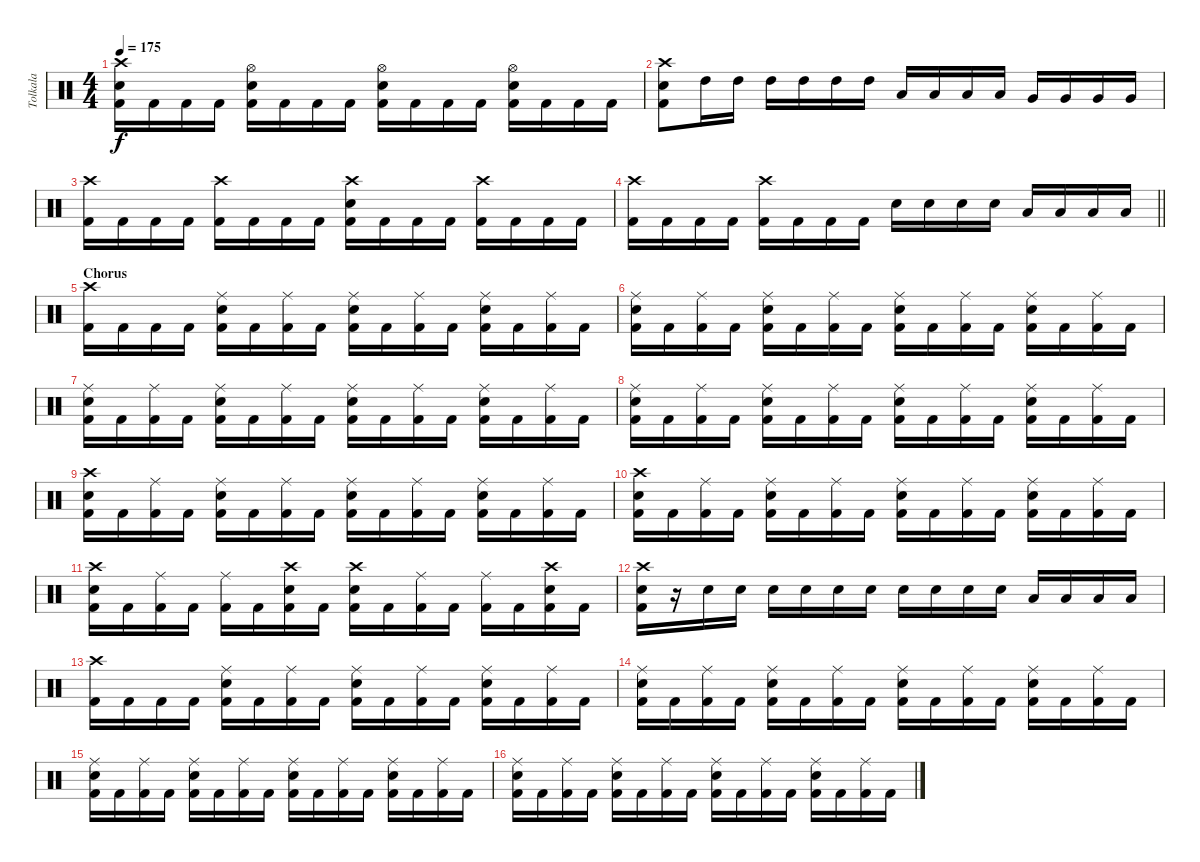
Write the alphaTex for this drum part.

\track ("Tolkala" "Tolkala") {instrument percussion}
\staff {score}
\articulation defaults
\ts (4 4)
\tempo 175
\clef neutral
\ks c
("Crash high (hit)" "Electric Snare (hit)" "Kick (hit) 2").16{dy f} "Kick (hit) 2".16 "Kick (hit) 2".16 "Kick (hit) 2".16 ("Hi-Hat (open)" "Electric Snare (hit)" "Kick (hit) 2").16 "Kick (hit) 2".16 "Kick (hit) 2".16 "Kick (hit) 2".16 ("Hi-Hat (open)" "Electric Snare (hit)" "Kick (hit) 2").16 "Kick (hit) 2".16 "Kick (hit) 2".16 "Kick (hit) 2".16 ("Hi-Hat (open)" "Electric Snare (hit)" "Kick (hit) 2").16 "Kick (hit) 2".16 "Kick (hit) 2".16 "Kick (hit) 2".16 |
("Crash high (hit)" "Electric Snare (hit)" "Kick (hit) 2").8 "High Tom (hit)".16 "High Tom (hit)".16 "High Tom (hit)".16 "High Tom (hit)".16 "High Tom (hit)".16 "High Tom (hit)".16 "Low Tom (hit)".16 "Low Tom (hit)".16 "Low Tom (hit)".16 "Low Tom (hit)".16 "Very Low Tom (hit)".16 "Very Low Tom (hit)".16 "Very Low Tom (hit)".16 "Very Low Tom (hit)".16 |
("Crash high (hit)" "Kick (hit) 2").16 "Kick (hit) 2".16 "Kick (hit) 2".16 "Kick (hit) 2".16 ("Crash high (hit)" "Kick (hit) 2").16 "Kick (hit) 2".16 "Kick (hit) 2".16 "Kick (hit) 2".16 ("Crash high (hit)" "Electric Snare (hit)" "Kick (hit) 2").16 "Kick (hit) 2".16 "Kick (hit) 2".16 "Kick (hit) 2".16 ("Crash high (hit)" "Kick (hit) 2").16 "Kick (hit) 2".16 "Kick (hit) 2".16 "Kick (hit) 2".16 |
\barLineRight lightlight
("Crash high (hit)" "Kick (hit) 2").16 "Kick (hit) 2".16 "Kick (hit) 2".16 "Kick (hit) 2".16 ("Crash high (hit)" "Kick (hit) 2").16 "Kick (hit) 2".16 "Kick (hit) 2".16 "Kick (hit) 2".16 "Electric Snare (hit)".16 "Electric Snare (hit)".16 "Electric Snare (hit)".16 "Electric Snare (hit)".16 "Low Tom (hit)".16 "Low Tom (hit)".16 "Low Tom (hit)".16 "Low Tom (hit)".16 |
\section ("" "Chorus")
("Crash high (hit)" "Kick (hit) 2").16 "Kick (hit) 2".16 "Kick (hit) 2".16 "Kick (hit) 2".16 ("Ride (middle)" "Electric Snare (hit)" "Kick (hit) 2").16 "Kick (hit) 2".16 ("Ride (middle)" "Kick (hit) 2").16 "Kick (hit) 2".16 ("Ride (middle)" "Electric Snare (hit)" "Kick (hit) 2").16 "Kick (hit) 2".16 ("Ride (middle)" "Kick (hit) 2").16 "Kick (hit) 2".16 ("Ride (middle)" "Electric Snare (hit)" "Kick (hit) 2").16 "Kick (hit) 2".16 ("Ride (middle)" "Kick (hit) 2").16 "Kick (hit) 2".16 |
("Ride (middle)" "Electric Snare (hit)" "Kick (hit) 2").16 "Kick (hit) 2".16 ("Ride (middle)" "Kick (hit) 2").16 "Kick (hit) 2".16 ("Ride (middle)" "Electric Snare (hit)" "Kick (hit) 2").16 "Kick (hit) 2".16 ("Ride (middle)" "Kick (hit) 2").16 "Kick (hit) 2".16 ("Ride (middle)" "Electric Snare (hit)" "Kick (hit) 2").16 "Kick (hit) 2".16 ("Ride (middle)" "Kick (hit) 2").16 "Kick (hit) 2".16 ("Ride (middle)" "Electric Snare (hit)" "Kick (hit) 2").16 "Kick (hit) 2".16 ("Ride (middle)" "Kick (hit) 2").16 "Kick (hit) 2".16 |
("Ride (middle)" "Electric Snare (hit)" "Kick (hit) 2").16 "Kick (hit) 2".16 ("Ride (middle)" "Kick (hit) 2").16 "Kick (hit) 2".16 ("Ride (middle)" "Electric Snare (hit)" "Kick (hit) 2").16 "Kick (hit) 2".16 ("Ride (middle)" "Kick (hit) 2").16 "Kick (hit) 2".16 ("Ride (middle)" "Electric Snare (hit)" "Kick (hit) 2").16 "Kick (hit) 2".16 ("Ride (middle)" "Kick (hit) 2").16 "Kick (hit) 2".16 ("Ride (middle)" "Electric Snare (hit)" "Kick (hit) 2").16 "Kick (hit) 2".16 ("Ride (middle)" "Kick (hit) 2").16 "Kick (hit) 2".16 |
("Ride (middle)" "Electric Snare (hit)" "Kick (hit) 2").16 "Kick (hit) 2".16 ("Ride (middle)" "Kick (hit) 2").16 "Kick (hit) 2".16 ("Ride (middle)" "Electric Snare (hit)" "Kick (hit) 2").16 "Kick (hit) 2".16 ("Ride (middle)" "Kick (hit) 2").16 "Kick (hit) 2".16 ("Ride (middle)" "Electric Snare (hit)" "Kick (hit) 2").16 "Kick (hit) 2".16 ("Ride (middle)" "Kick (hit) 2").16 "Kick (hit) 2".16 ("Ride (middle)" "Electric Snare (hit)" "Kick (hit) 2").16 "Kick (hit) 2".16 ("Ride (middle)" "Kick (hit) 2").16 "Kick (hit) 2".16 |
("Crash high (hit)" "Electric Snare (hit)" "Kick (hit) 2").16 "Kick (hit) 2".16 ("Ride (middle)" "Kick (hit) 2").16 "Kick (hit) 2".16 ("Ride (middle)" "Electric Snare (hit)" "Kick (hit) 2").16 "Kick (hit) 2".16 ("Ride (middle)" "Kick (hit) 2").16 "Kick (hit) 2".16 ("Ride (middle)" "Electric Snare (hit)" "Kick (hit) 2").16 "Kick (hit) 2".16 ("Ride (middle)" "Kick (hit) 2").16 "Kick (hit) 2".16 ("Ride (middle)" "Electric Snare (hit)" "Kick (hit) 2").16 "Kick (hit) 2".16 ("Ride (middle)" "Kick (hit) 2").16 "Kick (hit) 2".16 |
("Crash high (hit)" "Electric Snare (hit)" "Kick (hit) 2").16 "Kick (hit) 2".16 ("Ride (middle)" "Kick (hit) 2").16 "Kick (hit) 2".16 ("Ride (middle)" "Electric Snare (hit)" "Kick (hit) 2").16 "Kick (hit) 2".16 ("Ride (middle)" "Kick (hit) 2").16 "Kick (hit) 2".16 ("Ride (middle)" "Electric Snare (hit)" "Kick (hit) 2").16 "Kick (hit) 2".16 ("Ride (middle)" "Kick (hit) 2").16 "Kick (hit) 2".16 ("Ride (middle)" "Electric Snare (hit)" "Kick (hit) 2").16 "Kick (hit) 2".16 ("Ride (middle)" "Kick (hit) 2").16 "Kick (hit) 2".16 |
("Crash high (hit)" "Electric Snare (hit)" "Kick (hit) 2").16 "Kick (hit) 2".16 ("Ride (middle)" "Kick (hit) 2").16 "Kick (hit) 2".16 ("Ride (middle)" "Kick (hit) 2").16 "Kick (hit) 2".16 ("Crash high (hit)" "Electric Snare (hit)" "Kick (hit) 2").16 "Kick (hit) 2".16 ("Crash high (hit)" "Electric Snare (hit)" "Kick (hit) 2").16 "Kick (hit) 2".16 ("Ride (middle)" "Kick (hit) 2").16 "Kick (hit) 2".16 ("Ride (middle)" "Kick (hit) 2").16 "Kick (hit) 2".16 ("Crash high (hit)" "Electric Snare (hit)" "Kick (hit) 2").16 "Kick (hit) 2".16 |
("Crash high (hit)" "Electric Snare (hit)" "Kick (hit) 2").16 r.16 "Electric Snare (hit)".16 "Electric Snare (hit)".16 "Electric Snare (hit)".16 "Electric Snare (hit)".16 "Electric Snare (hit)".16 "Electric Snare (hit)".16 "Electric Snare (hit)".16 "Electric Snare (hit)".16 "Electric Snare (hit)".16 "Electric Snare (hit)".16 "Low Tom (hit)".16 "Low Tom (hit)".16 "Low Tom (hit)".16 "Low Tom (hit)".16 |
("Crash high (hit)" "Kick (hit) 2").16 "Kick (hit) 2".16 "Kick (hit) 2".16 "Kick (hit) 2".16 ("Ride (middle)" "Electric Snare (hit)" "Kick (hit) 2").16 "Kick (hit) 2".16 ("Ride (middle)" "Kick (hit) 2").16 "Kick (hit) 2".16 ("Ride (middle)" "Electric Snare (hit)" "Kick (hit) 2").16 "Kick (hit) 2".16 ("Ride (middle)" "Kick (hit) 2").16 "Kick (hit) 2".16 ("Ride (middle)" "Electric Snare (hit)" "Kick (hit) 2").16 "Kick (hit) 2".16 ("Ride (middle)" "Kick (hit) 2").16 "Kick (hit) 2".16 |
("Ride (middle)" "Electric Snare (hit)" "Kick (hit) 2").16 "Kick (hit) 2".16 ("Ride (middle)" "Kick (hit) 2").16 "Kick (hit) 2".16 ("Ride (middle)" "Electric Snare (hit)" "Kick (hit) 2").16 "Kick (hit) 2".16 ("Ride (middle)" "Kick (hit) 2").16 "Kick (hit) 2".16 ("Ride (middle)" "Electric Snare (hit)" "Kick (hit) 2").16 "Kick (hit) 2".16 ("Ride (middle)" "Kick (hit) 2").16 "Kick (hit) 2".16 ("Ride (middle)" "Electric Snare (hit)" "Kick (hit) 2").16 "Kick (hit) 2".16 ("Ride (middle)" "Kick (hit) 2").16 "Kick (hit) 2".16 |
("Ride (middle)" "Electric Snare (hit)" "Kick (hit) 2").16 "Kick (hit) 2".16 ("Ride (middle)" "Kick (hit) 2").16 "Kick (hit) 2".16 ("Ride (middle)" "Electric Snare (hit)" "Kick (hit) 2").16 "Kick (hit) 2".16 ("Ride (middle)" "Kick (hit) 2").16 "Kick (hit) 2".16 ("Ride (middle)" "Electric Snare (hit)" "Kick (hit) 2").16 "Kick (hit) 2".16 ("Ride (middle)" "Kick (hit) 2").16 "Kick (hit) 2".16 ("Ride (middle)" "Electric Snare (hit)" "Kick (hit) 2").16 "Kick (hit) 2".16 ("Ride (middle)" "Kick (hit) 2").16 "Kick (hit) 2".16 |
("Ride (middle)" "Electric Snare (hit)" "Kick (hit) 2").16 "Kick (hit) 2".16 ("Ride (middle)" "Kick (hit) 2").16 "Kick (hit) 2".16 ("Ride (middle)" "Electric Snare (hit)" "Kick (hit) 2").16 "Kick (hit) 2".16 ("Ride (middle)" "Kick (hit) 2").16 "Kick (hit) 2".16 ("Ride (middle)" "Electric Snare (hit)" "Kick (hit) 2").16 "Kick (hit) 2".16 ("Ride (middle)" "Kick (hit) 2").16 "Kick (hit) 2".16 ("Ride (middle)" "Electric Snare (hit)" "Kick (hit) 2").16 "Kick (hit) 2".16 ("Ride (middle)" "Kick (hit) 2").16 "Kick (hit) 2".16
